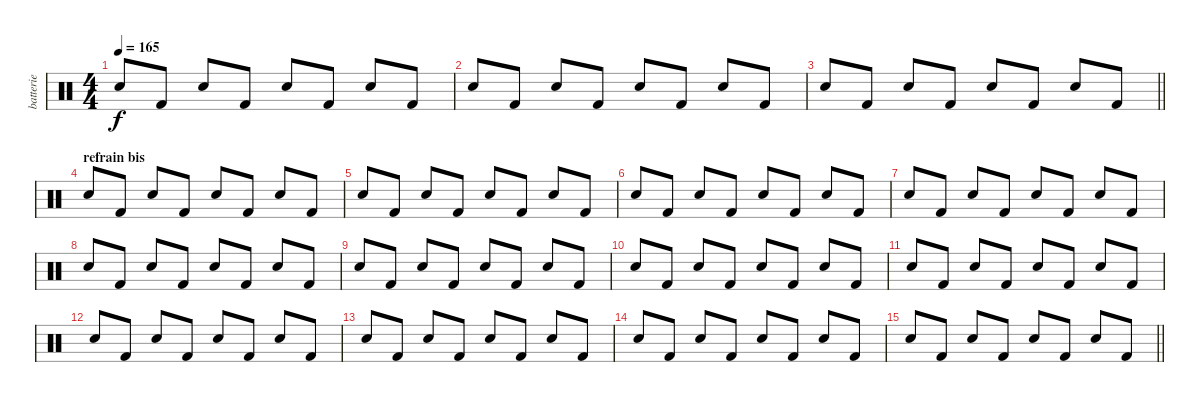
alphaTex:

\track ("batterie" "batterie") {instrument percussion}
\staff {score}
\articulation defaults
\ts (4 4)
\tempo 165
\clef neutral
\ks c "Snare (hit) 2".8{dy f} "Kick (hit) 2".8 "Snare (hit) 2".8 "Kick (hit) 2".8 "Snare (hit) 2".8 "Kick (hit) 2".8 "Snare (hit) 2".8 "Kick (hit) 2".8
|
"Snare (hit) 2".8 "Kick (hit) 2".8 "Snare (hit) 2".8 "Kick (hit) 2".8 "Snare (hit) 2".8 "Kick (hit) 2".8 "Snare (hit) 2".8 "Kick (hit) 2".8 |
\barLineRight lightlight "Snare (hit) 2".8 "Kick (hit) 2".8 "Snare (hit) 2".8 "Kick (hit) 2".8 "Snare (hit) 2".8 "Kick (hit) 2".8 "Snare (hit) 2".8 "Kick (hit) 2".8
|
\section ("" "refrain bis")
"Snare (hit) 2".8 "Kick (hit) 2".8 "Snare (hit) 2".8 "Kick (hit) 2".8 "Snare (hit) 2".8 "Kick (hit) 2".8 "Snare (hit) 2".8 "Kick (hit) 2".8 |
"Snare (hit) 2".8 "Kick (hit) 2".8 "Snare (hit) 2".8 "Kick (hit) 2".8 "Snare (hit) 2".8 "Kick (hit) 2".8 "Snare (hit) 2".8 "Kick (hit) 2".8 |
"Snare (hit) 2".8 "Kick (hit) 2".8 "Snare (hit) 2".8 "Kick (hit) 2".8 "Snare (hit) 2".8 "Kick (hit) 2".8 "Snare (hit) 2".8 "Kick (hit) 2".8 |
"Snare (hit) 2".8 "Kick (hit) 2".8 "Snare (hit) 2".8 "Kick (hit) 2".8 "Snare (hit) 2".8 "Kick (hit) 2".8 "Snare (hit) 2".8 "Kick (hit) 2".8 |
"Snare (hit) 2".8 "Kick (hit) 2".8 "Snare (hit) 2".8 "Kick (hit) 2".8 "Snare (hit) 2".8 "Kick (hit) 2".8 "Snare (hit) 2".8 "Kick (hit) 2".8 |
"Snare (hit) 2".8 "Kick (hit) 2".8 "Snare (hit) 2".8 "Kick (hit) 2".8 "Snare (hit) 2".8 "Kick (hit) 2".8 "Snare (hit) 2".8 "Kick (hit) 2".8 |
"Snare (hit) 2".8 "Kick (hit) 2".8 "Snare (hit) 2".8 "Kick (hit) 2".8 "Snare (hit) 2".8 "Kick (hit) 2".8 "Snare (hit) 2".8 "Kick (hit) 2".8 |
"Snare (hit) 2".8 "Kick (hit) 2".8 "Snare (hit) 2".8 "Kick (hit) 2".8 "Snare (hit) 2".8 "Kick (hit) 2".8 "Snare (hit) 2".8 "Kick (hit) 2".8 |
"Snare (hit) 2".8 "Kick (hit) 2".8 "Snare (hit) 2".8 "Kick (hit) 2".8 "Snare (hit) 2".8 "Kick (hit) 2".8 "Snare (hit) 2".8 "Kick (hit) 2".8 |
"Snare (hit) 2".8 "Kick (hit) 2".8 "Snare (hit) 2".8 "Kick (hit) 2".8 "Snare (hit) 2".8 "Kick (hit) 2".8 "Snare (hit) 2".8 "Kick (hit) 2".8 |
"Snare (hit) 2".8 "Kick (hit) 2".8 "Snare (hit) 2".8 "Kick (hit) 2".8 "Snare (hit) 2".8 "Kick (hit) 2".8 "Snare (hit) 2".8 "Kick (hit) 2".8 |
\barLineRight lightlight "Snare (hit) 2".8 "Kick (hit) 2".8 "Snare (hit) 2".8 "Kick (hit) 2".8 "Snare (hit) 2".8 "Kick (hit) 2".8 "Snare (hit) 2".8 "Kick (hit) 2".8
